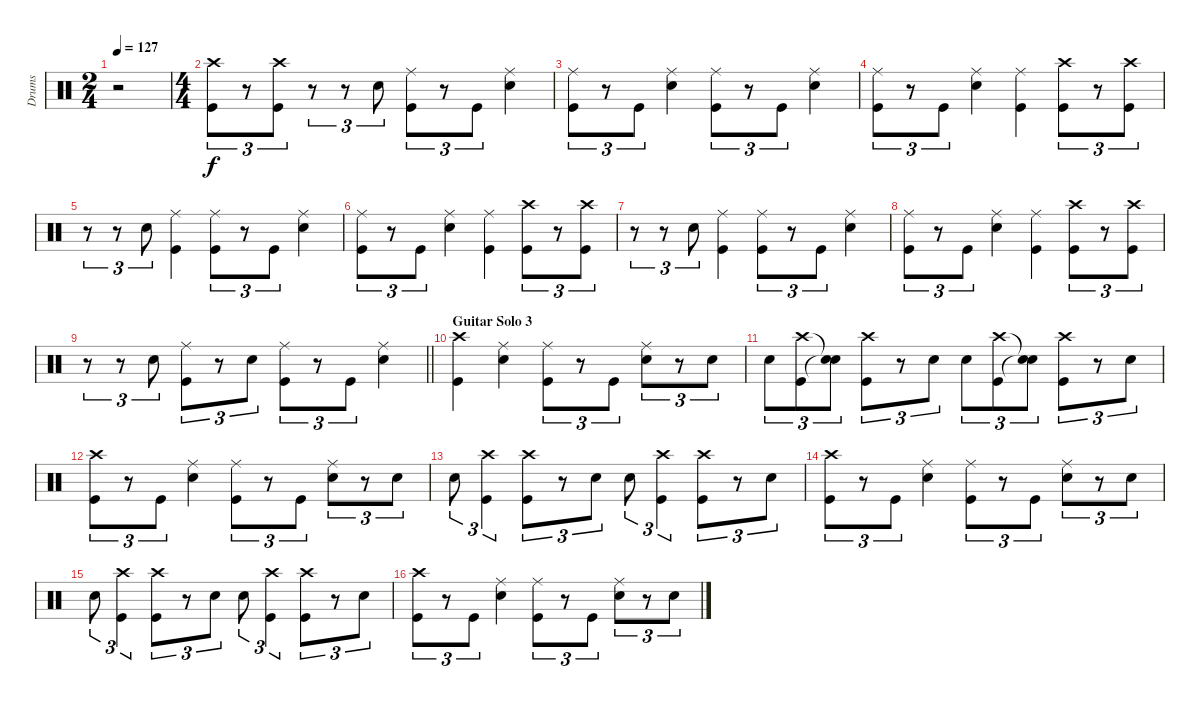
\track ("Drums" "Drums") {instrument percussion}
\staff {score}
\articulation defaults
\ts (2 4)
\tempo 127
\clef neutral
\ks c
r.2{dy f} |
\ts (4 4)
("Crash high (hit)" "Kick (hit)").8{tu (3 2)} r.8{tu (3 2)} ("Crash high (hit)" "Kick (hit)").8{tu (3 2)} r.8{tu (3 2)} r.8{tu (3 2)} "Snare (hit) 2".8{tu (3 2)} ("Ride (middle)" "Kick (hit)").8{tu (3 2)} r.8{tu (3 2)} "Kick (hit)".8{tu (3 2)} ("Snare (hit) 2" "Ride (middle)").4 |
("Ride (middle)" "Kick (hit)").8{tu (3 2)} r.8{tu (3 2)} "Kick (hit)".8{tu (3 2)} ("Ride (middle)" "Snare (hit) 2").4 ("Ride (middle)" "Kick (hit)").8{tu (3 2)} r.8{tu (3 2)} "Kick (hit)".8{tu (3 2)} ("Ride (middle)" "Snare (hit) 2").4 |
("Ride (middle)" "Kick (hit)").8{tu (3 2)} r.8{tu (3 2)} "Kick (hit)".8{tu (3 2)} ("Snare (hit) 2" "Ride (middle)").4 ("Ride (middle)" "Kick (hit)").4 ("Crash high (hit)" "Kick (hit)").8{tu (3 2)} r.8{tu (3 2)} ("Crash high (hit)" "Kick (hit)").8{tu (3 2)} |
r.8{tu (3 2)} r.8{tu (3 2)} "Snare (hit) 2".8{tu (3 2)} ("Ride (middle)" "Kick (hit)").4 ("Kick (hit)" "Ride (middle)").8{tu (3 2)} r.8{tu (3 2)} "Kick (hit)".8{tu (3 2)} ("Ride (middle)" "Snare (hit) 2").4 |
("Ride (middle)" "Kick (hit)").8{tu (3 2)} r.8{tu (3 2)} "Kick (hit)".8{tu (3 2)} ("Snare (hit) 2" "Ride (middle)").4 ("Ride (middle)" "Kick (hit)").4 ("Crash high (hit)" "Kick (hit)").8{tu (3 2)} r.8{tu (3 2)} ("Crash high (hit)" "Kick (hit)").8{tu (3 2)} |
r.8{tu (3 2)} r.8{tu (3 2)} "Snare (hit) 2".8{tu (3 2)} ("Ride (middle)" "Kick (hit)").4 ("Ride (middle)" "Kick (hit)").8{tu (3 2)} r.8{tu (3 2)} "Kick (hit)".8{tu (3 2)} ("Ride (middle)" "Snare (hit) 2").4 |
("Kick (hit)" "Ride (middle)").8{tu (3 2)} r.8{tu (3 2)} "Kick (hit)".8{tu (3 2)} ("Snare (hit) 2" "Ride (middle)").4 ("Ride (middle)" "Kick (hit)").4 ("Crash high (hit)" "Kick (hit)").8{tu (3 2)} r.8{tu (3 2)} ("Kick (hit)" "Crash high (hit)").8{tu (3 2)} |
\barLineRight lightlight
r.8{tu (3 2)} r.8{tu (3 2)} "Snare (hit) 2".8{tu (3 2)} ("Ride (middle)" "Kick (hit)").8{tu (3 2)} r.8{tu (3 2)} "Snare (hit) 2".8{tu (3 2)} ("Ride (middle)" "Kick (hit)").8{tu (3 2)} r.8{tu (3 2)} "Kick (hit)".8{tu (3 2)} ("Snare (hit) 2" "Ride (middle)").4 |
\section ("" "Guitar Solo 3")
("Kick (hit)" "Crash high (hit)").4 ("Ride (middle)" "Snare (hit) 2").4 ("Ride (middle)" "Kick (hit)").8{tu (3 2)} r.8{tu (3 2)} "Kick (hit)".8{tu (3 2)} ("Ride (middle)" "Snare (hit) 2").8{tu (3 2)} r.8{tu (3 2)} "Snare (hit) 2".8{tu (3 2)} |
"Snare (hit) 2".8{tu (3 2)} ("Kick (hit)" "Crash high (hit)").8{tu (3 2)} ("Snare (hit)"{t} "Snare (hit)"{t}).8{tu (3 2)} ("Crash high (hit)" "Kick (hit)").8{tu (3 2)} r.8{tu (3 2)} "Snare (hit) 2".8{tu (3 2)} "Snare (hit) 2".8{tu (3 2)} ("Crash high (hit)" "Kick (hit)").8{tu (3 2)} ("Snare (hit)"{t} "Snare (hit)"{t}).8{tu (3 2)} ("Crash high (hit)" "Kick (hit)").8{tu (3 2)} r.8{tu (3 2)} "Snare (hit) 2".8{tu (3 2)} |
("Crash high (hit)" "Kick (hit)").8{tu (3 2)} r.8{tu (3 2)} "Kick (hit)".8{tu (3 2)} ("Ride (middle)" "Snare (hit) 2").4 ("Kick (hit)" "Ride (middle)").8{tu (3 2)} r.8{tu (3 2)} "Kick (hit)".8{tu (3 2)} ("Snare (hit) 2" "Ride (middle)").8{tu (3 2)} r.8{tu (3 2)} "Snare (hit) 2".8{tu (3 2)} |
"Snare (hit) 2".8{tu (3 2)} ("Kick (hit)" "Crash high (hit)").4{tu (3 2)} ("Crash high (hit)" "Kick (hit)").8{tu (3 2)} r.8{tu (3 2)} "Snare (hit) 2".8{tu (3 2)} "Snare (hit) 2".8{tu (3 2)} ("Crash high (hit)" "Kick (hit)").4{tu (3 2)} ("Crash high (hit)" "Kick (hit)").8{tu (3 2)} r.8{tu (3 2)} "Snare (hit) 2".8{tu (3 2)} |
("Crash high (hit)" "Kick (hit)").8{tu (3 2)} r.8{tu (3 2)} "Kick (hit)".8{tu (3 2)} ("Ride (middle)" "Snare (hit) 2").4 ("Kick (hit)" "Ride (middle)").8{tu (3 2)} r.8{tu (3 2)} "Kick (hit)".8{tu (3 2)} ("Snare (hit) 2" "Ride (middle)").8{tu (3 2)} r.8{tu (3 2)} "Snare (hit) 2".8{tu (3 2)} |
"Snare (hit) 2".8{tu (3 2)} ("Kick (hit)" "Crash high (hit)").4{tu (3 2)} ("Crash high (hit)" "Kick (hit)").8{tu (3 2)} r.8{tu (3 2)} "Snare (hit) 2".8{tu (3 2)} "Snare (hit) 2".8{tu (3 2)} ("Crash high (hit)" "Kick (hit)").4{tu (3 2)} ("Crash high (hit)" "Kick (hit)").8{tu (3 2)} r.8{tu (3 2)} "Snare (hit) 2".8{tu (3 2)} |
("Crash high (hit)" "Kick (hit)").8{tu (3 2)} r.8{tu (3 2)} "Kick (hit)".8{tu (3 2)} ("Ride (middle)" "Snare (hit) 2").4 ("Kick (hit)" "Ride (middle)").8{tu (3 2)} r.8{tu (3 2)} "Kick (hit)".8{tu (3 2)} ("Snare (hit) 2" "Ride (middle)").8{tu (3 2)} r.8{tu (3 2)} "Snare (hit) 2".8{tu (3 2)}
